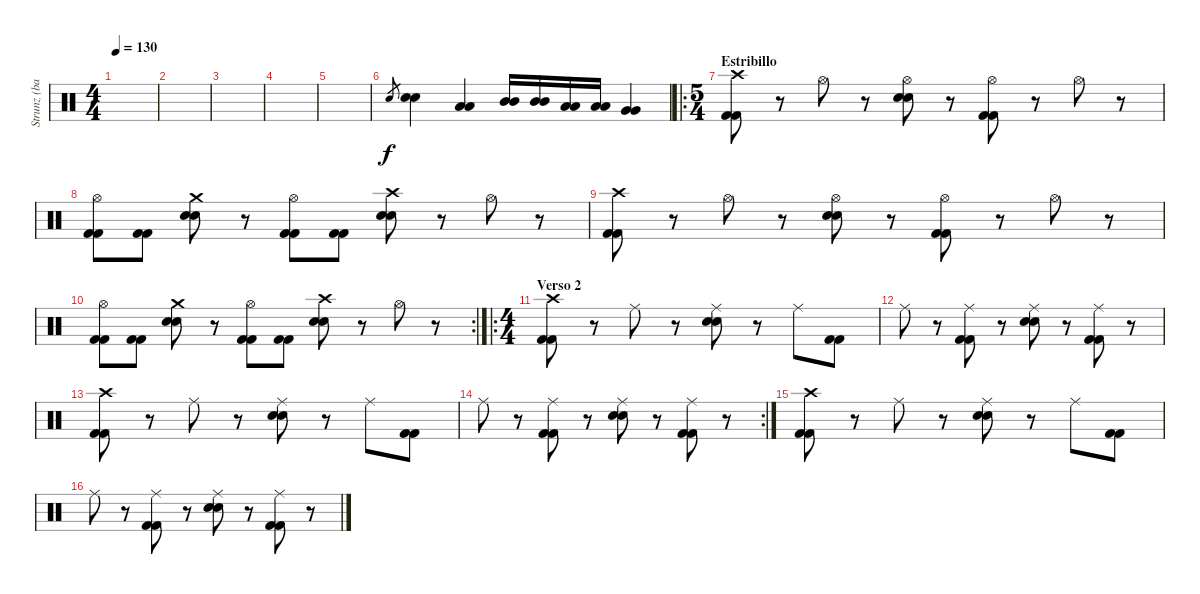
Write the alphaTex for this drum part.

\track ("Strunz (bateria)" "Strunz (ba") {instrument percussion}
\staff {score}
\articulation defaults
\ts (4 4)
\tempo 130
\clef neutral
\ks c
|
|
|
|
|
"Snare (hit) 2".8{gr} ("Snare (hit) 2" "Snare (hit) 2").4 ("Low Tom (hit)" "Low Tom (hit)").4 ("Mid Tom (hit)" "Mid Tom (hit)").16 ("Mid Tom (hit)" "Mid Tom (hit)").16 ("Low Tom (hit)" "Low Tom (hit)").16 ("Low Tom (hit)" "Low Tom (hit)").16 ("Very Low Tom (hit)" "Very Low Tom (hit)").4 |
\ro
\ts (5 4)
\section ("" "Estribillo")
("Crash high (hit)" "Kick (hit) 2" "Kick (hit) 2").8 r.8 "Hi-Hat (open)".8 r.8 ("Hi-Hat (open)" "Snare (hit) 2" "Snare (hit) 2").8 r.8 ("Hi-Hat (open)" "Kick (hit) 2" "Kick (hit) 2").8 r.8 "Hi-Hat (open)".8 r.8 |
("Hi-Hat (open)" "Kick (hit) 2" "Kick (hit) 2").8 ("Kick (hit) 2" "Kick (hit) 2").8 ("Crash medium (hit)" "Snare (hit) 2" "Snare (hit) 2").8 r.8 ("Hi-Hat (open)" "Kick (hit) 2" "Kick (hit) 2").8 ("Kick (hit) 2" "Kick (hit) 2").8 ("Crash high (hit)" "Snare (hit) 2" "Snare (hit) 2").8 r.8 "Hi-Hat (open)".8 r.8 |
("Crash high (hit)" "Kick (hit) 2" "Kick (hit) 2").8 r.8 "Hi-Hat (open)".8 r.8 ("Hi-Hat (open)" "Snare (hit) 2" "Snare (hit) 2").8 r.8 ("Hi-Hat (open)" "Kick (hit) 2" "Kick (hit) 2").8 r.8 "Hi-Hat (open)".8 r.8 |
\rc 2
("Hi-Hat (open)" "Kick (hit) 2" "Kick (hit) 2").8 ("Kick (hit) 2" "Kick (hit) 2").8 ("Crash medium (hit)" "Snare (hit) 2" "Snare (hit) 2").8 r.8 ("Hi-Hat (open)" "Kick (hit) 2" "Kick (hit) 2").8 ("Kick (hit) 2" "Kick (hit) 2").8 ("Crash high (hit)" "Snare (hit) 2" "Snare (hit) 2").8 r.8 "Hi-Hat (open)".8 r.8 |
\ro
\ts (4 4)
\section ("" "Verso 2")
("Crash high (hit)" "Kick (hit) 2" "Kick (hit) 2").8 r.8 "Ride (middle)".8 r.8 ("Ride (middle)" "Snare (hit) 2" "Snare (hit) 2").8 r.8 "Ride (middle)".8 ("Kick (hit) 2" "Kick (hit) 2").8 |
"Ride (middle)".8 r.8 ("Ride (middle)" "Kick (hit) 2" "Kick (hit) 2").8 r.8 ("Ride (middle)" "Snare (hit) 2" "Snare (hit) 2").8 r.8 ("Ride (middle)" "Kick (hit) 2" "Kick (hit) 2").8 r.8 |
("Crash high (hit)" "Kick (hit) 2" "Kick (hit) 2").8 r.8 "Ride (middle)".8 r.8 ("Ride (middle)" "Snare (hit) 2" "Snare (hit) 2").8 r.8 "Ride (middle)".8 ("Kick (hit) 2" "Kick (hit) 2").8 |
\rc 2 "Ride (middle)".8
r.8 ("Ride (middle)" "Kick (hit) 2" "Kick (hit) 2").8 r.8 ("Ride (middle)" "Snare (hit) 2" "Snare (hit) 2").8 r.8 ("Ride (middle)" "Kick (hit) 2" "Kick (hit) 2").8 r.8 |
("Crash high (hit)" "Kick (hit) 2" "Kick (hit) 2").8 r.8 "Ride (middle)".8 r.8 ("Ride (middle)" "Snare (hit) 2" "Snare (hit) 2").8 r.8 "Ride (middle)".8 ("Kick (hit) 2" "Kick (hit) 2").8 |
"Ride (middle)".8 r.8 ("Ride (middle)" "Kick (hit) 2" "Kick (hit) 2").8 r.8 ("Ride (middle)" "Snare (hit) 2" "Snare (hit) 2").8 r.8 ("Ride (middle)" "Kick (hit) 2" "Kick (hit) 2").8 r.8
